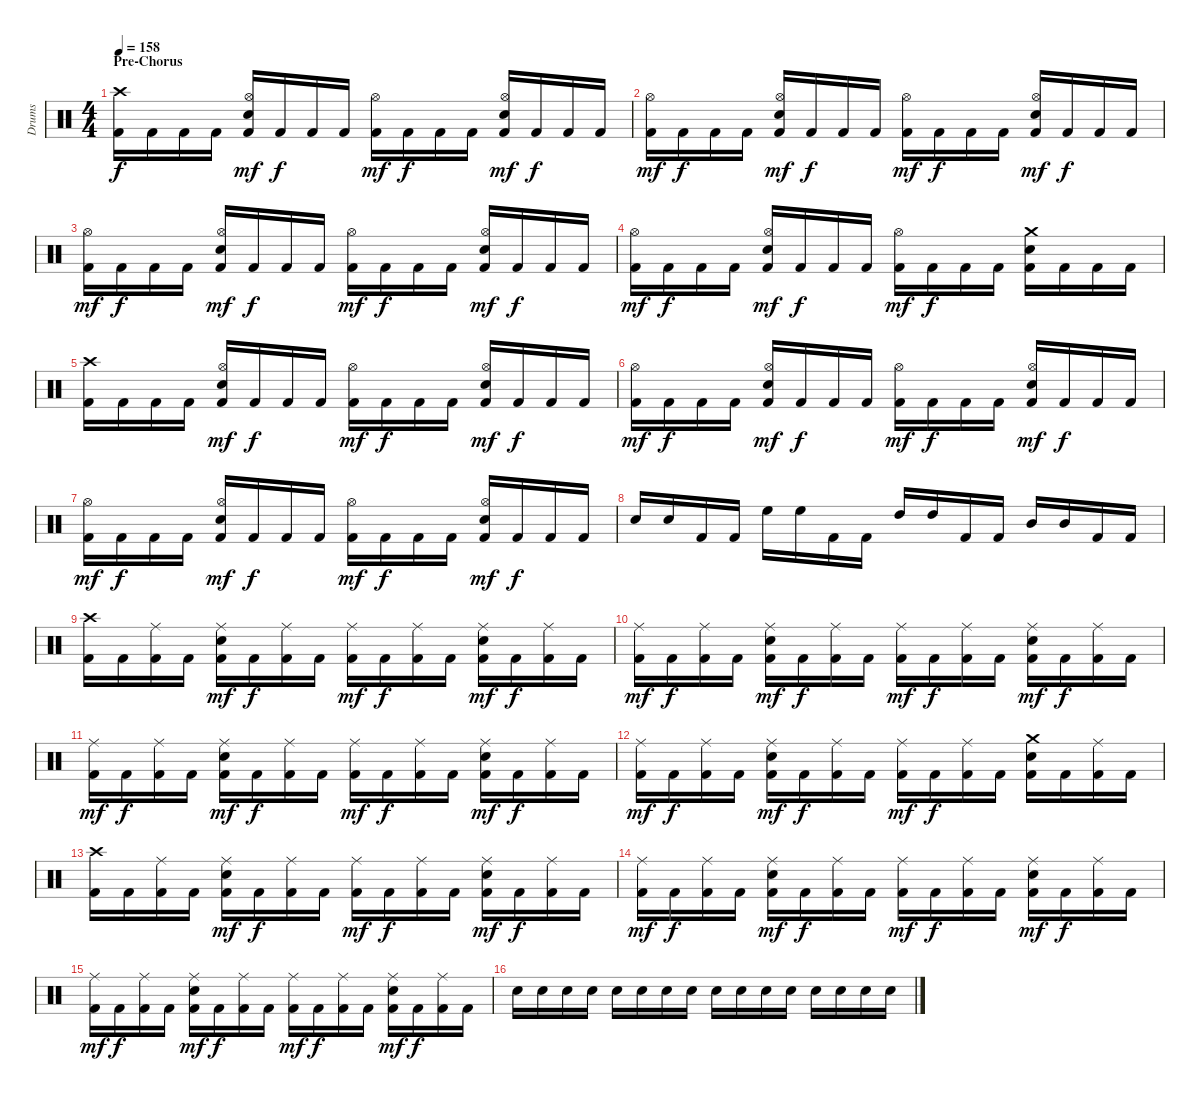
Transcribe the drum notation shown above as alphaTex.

\track ("Drums" "Drums") {instrument percussion}
\staff {score}
\articulation defaults
\ts (4 4)
\section ("" "Pre-Chorus")
\tempo 158
\clef neutral
\ks c
("Crash high (hit)" "Kick (hit) 2").16{dy f} "Kick (hit) 2".16 "Kick (hit) 2".16 "Kick (hit) 2".16 ("Hi-Hat (open)" "Electric Snare (hit)" "Kick (hit) 2").16{dy mf} "Kick (hit) 2".16{dy f} "Kick (hit) 2".16 "Kick (hit) 2".16 ("Hi-Hat (open)" "Kick (hit) 2").16{dy mf} "Kick (hit) 2".16{dy f} "Kick (hit) 2".16 "Kick (hit) 2".16 ("Hi-Hat (open)" "Electric Snare (hit)" "Kick (hit) 2").16{dy mf} "Kick (hit) 2".16{dy f} "Kick (hit) 2".16 "Kick (hit) 2".16 |
("Hi-Hat (open)" "Kick (hit) 2").16{dy mf} "Kick (hit) 2".16{dy f} "Kick (hit) 2".16 "Kick (hit) 2".16 ("Hi-Hat (open)" "Electric Snare (hit)" "Kick (hit) 2").16{dy mf} "Kick (hit) 2".16{dy f} "Kick (hit) 2".16 "Kick (hit) 2".16 ("Hi-Hat (open)" "Kick (hit) 2").16{dy mf} "Kick (hit) 2".16{dy f} "Kick (hit) 2".16 "Kick (hit) 2".16 ("Hi-Hat (open)" "Electric Snare (hit)" "Kick (hit) 2").16{dy mf} "Kick (hit) 2".16{dy f} "Kick (hit) 2".16 "Kick (hit) 2".16 |
("Hi-Hat (open)" "Kick (hit) 2").16{dy mf} "Kick (hit) 2".16{dy f} "Kick (hit) 2".16 "Kick (hit) 2".16 ("Hi-Hat (open)" "Electric Snare (hit)" "Kick (hit) 2").16{dy mf} "Kick (hit) 2".16{dy f} "Kick (hit) 2".16 "Kick (hit) 2".16 ("Hi-Hat (open)" "Kick (hit) 2").16{dy mf} "Kick (hit) 2".16{dy f} "Kick (hit) 2".16 "Kick (hit) 2".16 ("Hi-Hat (open)" "Electric Snare (hit)" "Kick (hit) 2").16{dy mf} "Kick (hit) 2".16{dy f} "Kick (hit) 2".16 "Kick (hit) 2".16 |
("Hi-Hat (open)" "Kick (hit) 2").16{dy mf} "Kick (hit) 2".16{dy f} "Kick (hit) 2".16 "Kick (hit) 2".16 ("Hi-Hat (open)" "Electric Snare (hit)" "Kick (hit) 2").16{dy mf} "Kick (hit) 2".16{dy f} "Kick (hit) 2".16 "Kick (hit) 2".16 ("Hi-Hat (open)" "Kick (hit) 2").16{dy mf} "Kick (hit) 2".16{dy f} "Kick (hit) 2".16 "Kick (hit) 2".16 ("Crash medium (hit)" "Electric Snare (hit)" "Kick (hit) 2").16 "Kick (hit) 2".16 "Kick (hit) 2".16 "Kick (hit) 2".16 |
("Crash high (hit)" "Kick (hit) 2").16 "Kick (hit) 2".16 "Kick (hit) 2".16 "Kick (hit) 2".16 ("Hi-Hat (open)" "Electric Snare (hit)" "Kick (hit) 2").16{dy mf} "Kick (hit) 2".16{dy f} "Kick (hit) 2".16 "Kick (hit) 2".16 ("Hi-Hat (open)" "Kick (hit) 2").16{dy mf} "Kick (hit) 2".16{dy f} "Kick (hit) 2".16 "Kick (hit) 2".16 ("Hi-Hat (open)" "Electric Snare (hit)" "Kick (hit) 2").16{dy mf} "Kick (hit) 2".16{dy f} "Kick (hit) 2".16 "Kick (hit) 2".16 |
("Hi-Hat (open)" "Kick (hit) 2").16{dy mf} "Kick (hit) 2".16{dy f} "Kick (hit) 2".16 "Kick (hit) 2".16 ("Hi-Hat (open)" "Electric Snare (hit)" "Kick (hit) 2").16{dy mf} "Kick (hit) 2".16{dy f} "Kick (hit) 2".16 "Kick (hit) 2".16 ("Hi-Hat (open)" "Kick (hit) 2").16{dy mf} "Kick (hit) 2".16{dy f} "Kick (hit) 2".16 "Kick (hit) 2".16 ("Hi-Hat (open)" "Electric Snare (hit)" "Kick (hit) 2").16{dy mf} "Kick (hit) 2".16{dy f} "Kick (hit) 2".16 "Kick (hit) 2".16 |
("Hi-Hat (open)" "Kick (hit) 2").16{dy mf} "Kick (hit) 2".16{dy f} "Kick (hit) 2".16 "Kick (hit) 2".16 ("Hi-Hat (open)" "Electric Snare (hit)" "Kick (hit) 2").16{dy mf} "Kick (hit) 2".16{dy f} "Kick (hit) 2".16 "Kick (hit) 2".16 ("Hi-Hat (open)" "Kick (hit) 2").16{dy mf} "Kick (hit) 2".16{dy f} "Kick (hit) 2".16 "Kick (hit) 2".16 ("Hi-Hat (open)" "Electric Snare (hit)" "Kick (hit) 2").16{dy mf} "Kick (hit) 2".16{dy f} "Kick (hit) 2".16 "Kick (hit) 2".16 |
"Electric Snare (hit)".16 "Electric Snare (hit)".16 "Kick (hit) 2".16 "Kick (hit) 2".16 "High Floor Tom (hit)".16 "High Floor Tom (hit)".16 "Kick (hit) 2".16 "Kick (hit) 2".16 "High Tom (hit)".16 "High Tom (hit)".16 "Kick (hit) 2".16 "Kick (hit) 2".16 "Mid Tom (hit)".16 "Mid Tom (hit)".16 "Kick (hit) 2".16 "Kick (hit) 2".16 |
("Crash high (hit)" "Kick (hit) 2").16 "Kick (hit) 2".16 ("Ride (middle)" "Kick (hit) 2").16 "Kick (hit) 2".16 ("Ride (middle)" "Electric Snare (hit)" "Kick (hit) 2").16{dy mf} "Kick (hit) 2".16{dy f} ("Ride (middle)" "Kick (hit) 2").16 "Kick (hit) 2".16 ("Ride (middle)" "Kick (hit) 2").16{dy mf} "Kick (hit) 2".16{dy f} ("Ride (middle)" "Kick (hit) 2").16 "Kick (hit) 2".16 ("Ride (middle)" "Electric Snare (hit)" "Kick (hit) 2").16{dy mf} "Kick (hit) 2".16{dy f} ("Ride (middle)" "Kick (hit) 2").16 "Kick (hit) 2".16 |
("Ride (middle)" "Kick (hit) 2").16{dy mf} "Kick (hit) 2".16{dy f} ("Ride (middle)" "Kick (hit) 2").16 "Kick (hit) 2".16 ("Ride (middle)" "Electric Snare (hit)" "Kick (hit) 2").16{dy mf} "Kick (hit) 2".16{dy f} ("Ride (middle)" "Kick (hit) 2").16 "Kick (hit) 2".16 ("Ride (middle)" "Kick (hit) 2").16{dy mf} "Kick (hit) 2".16{dy f} ("Ride (middle)" "Kick (hit) 2").16 "Kick (hit) 2".16 ("Ride (middle)" "Electric Snare (hit)" "Kick (hit) 2").16{dy mf} "Kick (hit) 2".16{dy f} ("Ride (middle)" "Kick (hit) 2").16 "Kick (hit) 2".16 |
("Ride (middle)" "Kick (hit) 2").16{dy mf} "Kick (hit) 2".16{dy f} ("Ride (middle)" "Kick (hit) 2").16 "Kick (hit) 2".16 ("Ride (middle)" "Electric Snare (hit)" "Kick (hit) 2").16{dy mf} "Kick (hit) 2".16{dy f} ("Ride (middle)" "Kick (hit) 2").16 "Kick (hit) 2".16 ("Ride (middle)" "Kick (hit) 2").16{dy mf} "Kick (hit) 2".16{dy f} ("Ride (middle)" "Kick (hit) 2").16 "Kick (hit) 2".16 ("Ride (middle)" "Electric Snare (hit)" "Kick (hit) 2").16{dy mf} "Kick (hit) 2".16{dy f} ("Ride (middle)" "Kick (hit) 2").16 "Kick (hit) 2".16 |
("Ride (middle)" "Kick (hit) 2").16{dy mf} "Kick (hit) 2".16{dy f} ("Ride (middle)" "Kick (hit) 2").16 "Kick (hit) 2".16 ("Ride (middle)" "Electric Snare (hit)" "Kick (hit) 2").16{dy mf} "Kick (hit) 2".16{dy f} ("Ride (middle)" "Kick (hit) 2").16 "Kick (hit) 2".16 ("Ride (middle)" "Kick (hit) 2").16{dy mf} "Kick (hit) 2".16{dy f} ("Ride (middle)" "Kick (hit) 2").16 "Kick (hit) 2".16 ("Crash medium (hit)" "Electric Snare (hit)" "Kick (hit) 2").16 "Kick (hit) 2".16 ("Ride (middle)" "Kick (hit) 2").16 "Kick (hit) 2".16 |
("Crash high (hit)" "Kick (hit) 2").16 "Kick (hit) 2".16 ("Ride (middle)" "Kick (hit) 2").16 "Kick (hit) 2".16 ("Ride (middle)" "Electric Snare (hit)" "Kick (hit) 2").16{dy mf} "Kick (hit) 2".16{dy f} ("Ride (middle)" "Kick (hit) 2").16 "Kick (hit) 2".16 ("Ride (middle)" "Kick (hit) 2").16{dy mf} "Kick (hit) 2".16{dy f} ("Ride (middle)" "Kick (hit) 2").16 "Kick (hit) 2".16 ("Ride (middle)" "Electric Snare (hit)" "Kick (hit) 2").16{dy mf} "Kick (hit) 2".16{dy f} ("Ride (middle)" "Kick (hit) 2").16 "Kick (hit) 2".16 |
("Ride (middle)" "Kick (hit) 2").16{dy mf} "Kick (hit) 2".16{dy f} ("Ride (middle)" "Kick (hit) 2").16 "Kick (hit) 2".16 ("Ride (middle)" "Electric Snare (hit)" "Kick (hit) 2").16{dy mf} "Kick (hit) 2".16{dy f} ("Ride (middle)" "Kick (hit) 2").16 "Kick (hit) 2".16 ("Ride (middle)" "Kick (hit) 2").16{dy mf} "Kick (hit) 2".16{dy f} ("Ride (middle)" "Kick (hit) 2").16 "Kick (hit) 2".16 ("Ride (middle)" "Electric Snare (hit)" "Kick (hit) 2").16{dy mf} "Kick (hit) 2".16{dy f} ("Ride (middle)" "Kick (hit) 2").16 "Kick (hit) 2".16 |
("Ride (middle)" "Kick (hit) 2").16{dy mf} "Kick (hit) 2".16{dy f} ("Ride (middle)" "Kick (hit) 2").16 "Kick (hit) 2".16 ("Ride (middle)" "Electric Snare (hit)" "Kick (hit) 2").16{dy mf} "Kick (hit) 2".16{dy f} ("Ride (middle)" "Kick (hit) 2").16 "Kick (hit) 2".16 ("Ride (middle)" "Kick (hit) 2").16{dy mf} "Kick (hit) 2".16{dy f} ("Ride (middle)" "Kick (hit) 2").16 "Kick (hit) 2".16 ("Ride (middle)" "Electric Snare (hit)" "Kick (hit) 2").16{dy mf} "Kick (hit) 2".16{dy f} ("Ride (middle)" "Kick (hit) 2").16 "Kick (hit) 2".16 |
"Electric Snare (hit)".16 "Electric Snare (hit)".16 "Electric Snare (hit)".16 "Electric Snare (hit)".16 "Electric Snare (hit)".16 "Electric Snare (hit)".16 "Electric Snare (hit)".16 "Electric Snare (hit)".16 "Electric Snare (hit)".16 "Electric Snare (hit)".16 "Electric Snare (hit)".16 "Electric Snare (hit)".16 "Electric Snare (hit)".16 "Electric Snare (hit)".16 "Electric Snare (hit)".16 "Electric Snare (hit)".16
